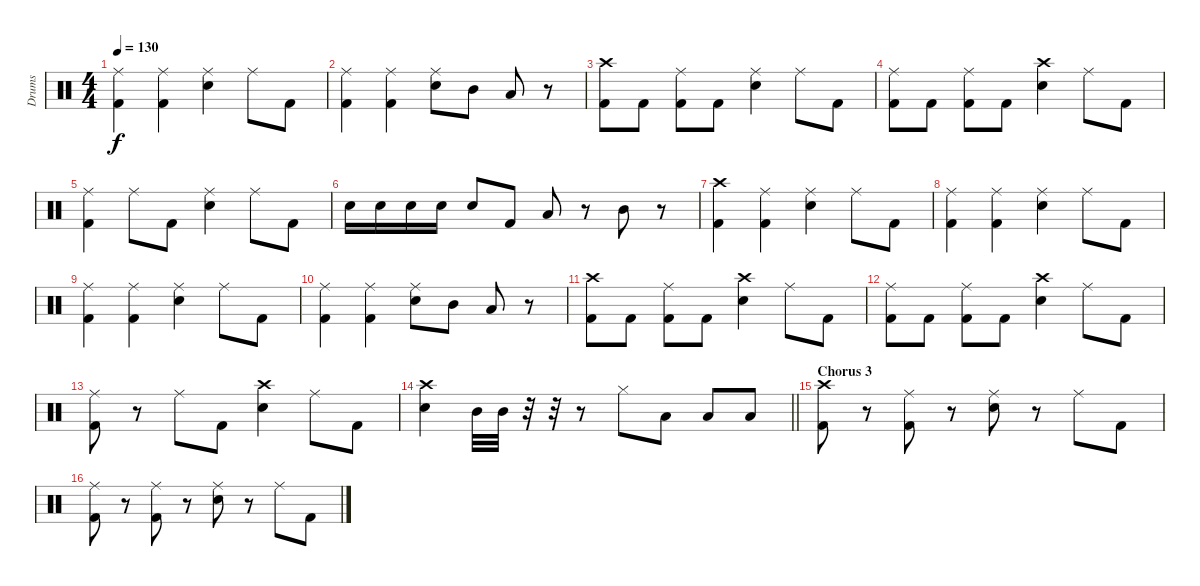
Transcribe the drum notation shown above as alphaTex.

\track ("Drums" "Drums") {instrument percussion}
\staff {score}
\articulation defaults
\ts (4 4)
\tempo 130
\clef neutral
\ks c
("Ride (middle)" "Kick (hit) 2").4{dy f} ("Ride (middle)" "Kick (hit) 2").4 ("Ride (middle)" "Snare (hit) 2").4 "Ride (middle)".8 "Kick (hit) 2".8 |
("Ride (middle)" "Kick (hit) 2").4 ("Ride (middle)" "Kick (hit) 2").4 ("Ride (middle)" "Snare (hit) 2").8 "Mid Tom (hit)".8 "Low Tom (hit)".8 r.8 |
("Crash high (hit)" "Kick (hit) 2").8 "Kick (hit) 2".8 ("Ride (middle)" "Kick (hit) 2").8 "Kick (hit) 2".8 ("Ride (middle)" "Snare (hit) 2").4 "Ride (middle)".8 "Kick (hit) 2".8 |
("Ride (middle)" "Kick (hit) 2").8 "Kick (hit) 2".8 ("Ride (middle)" "Kick (hit) 2").8 "Kick (hit) 2".8 ("Crash high (hit)" "Snare (hit) 2").4 "Ride (middle)".8 "Kick (hit) 2".8 |
("Ride (middle)" "Kick (hit) 2").4 "Ride (middle)".8 "Kick (hit) 2".8 ("Ride (middle)" "Snare (hit) 2").4 "Ride (middle)".8 "Kick (hit) 2".8 |
"Snare (hit) 2".16 "Snare (hit) 2".16 "Snare (hit) 2".16 "Snare (hit) 2".16 "Snare (hit) 2".8 "Kick (hit) 2".8 "Low Tom (hit)".8 r.8 "Mid Tom (hit)".8 r.8 |
("Crash high (hit)" "Kick (hit) 2").4 ("Ride (middle)" "Kick (hit) 2").4 ("Ride (middle)" "Snare (hit) 2").4 "Ride (middle)".8 "Kick (hit) 2".8 |
("Ride (middle)" "Kick (hit) 2").4 ("Ride (middle)" "Kick (hit) 2").4 ("Ride (middle)" "Snare (hit) 2").4 "Ride (middle)".8 "Kick (hit) 2".8 |
("Ride (middle)" "Kick (hit) 2").4 ("Ride (middle)" "Kick (hit) 2").4 ("Ride (middle)" "Snare (hit) 2").4 "Ride (middle)".8 "Kick (hit) 2".8 |
("Ride (middle)" "Kick (hit) 2").4 ("Ride (middle)" "Kick (hit) 2").4 ("Ride (middle)" "Snare (hit) 2").8 "Mid Tom (hit)".8 "Low Tom (hit)".8 r.8 |
("Crash high (hit)" "Kick (hit) 2").8 "Kick (hit) 2".8 ("Ride (middle)" "Kick (hit) 2").8 "Kick (hit) 2".8 ("Crash high (hit)" "Snare (hit) 2").4 "Ride (middle)".8 "Kick (hit) 2".8 |
("Ride (middle)" "Kick (hit) 2").8 "Kick (hit) 2".8 ("Ride (middle)" "Kick (hit) 2").8 "Kick (hit) 2".8 ("Crash high (hit)" "Snare (hit) 2").4 "Ride (middle)".8 "Kick (hit) 2".8 |
("Ride (middle)" "Kick (hit) 2").8 r.8 "Ride (middle)".8 "Kick (hit) 2".8 ("Crash high (hit)" "Snare (hit) 2").4 "Ride (middle)".8 "Kick (hit) 2".8 |
\barLineRight lightlight
("Crash high (hit)" "Snare (hit) 2").4 "Mid Tom (hit)".32 "Mid Tom (hit)".32 r.32 r.32 r.8 "Hi-Hat (closed)".8 "Low Tom (hit)".8 "Low Tom (hit)".8 "Low Tom (hit)".8 |
\section ("" "Chorus 3")
("Crash high (hit)" "Kick (hit) 2").8 r.8 ("Ride (middle)" "Kick (hit) 2").8 r.8 ("Ride (middle)" "Snare (hit) 2").8 r.8 "Ride (middle)".8 "Kick (hit) 2".8 |
("Ride (middle)" "Kick (hit) 2").8 r.8 ("Ride (middle)" "Kick (hit) 2").8 r.8 ("Ride (middle)" "Snare (hit) 2").8 r.8 "Ride (middle)".8 "Kick (hit) 2".8
